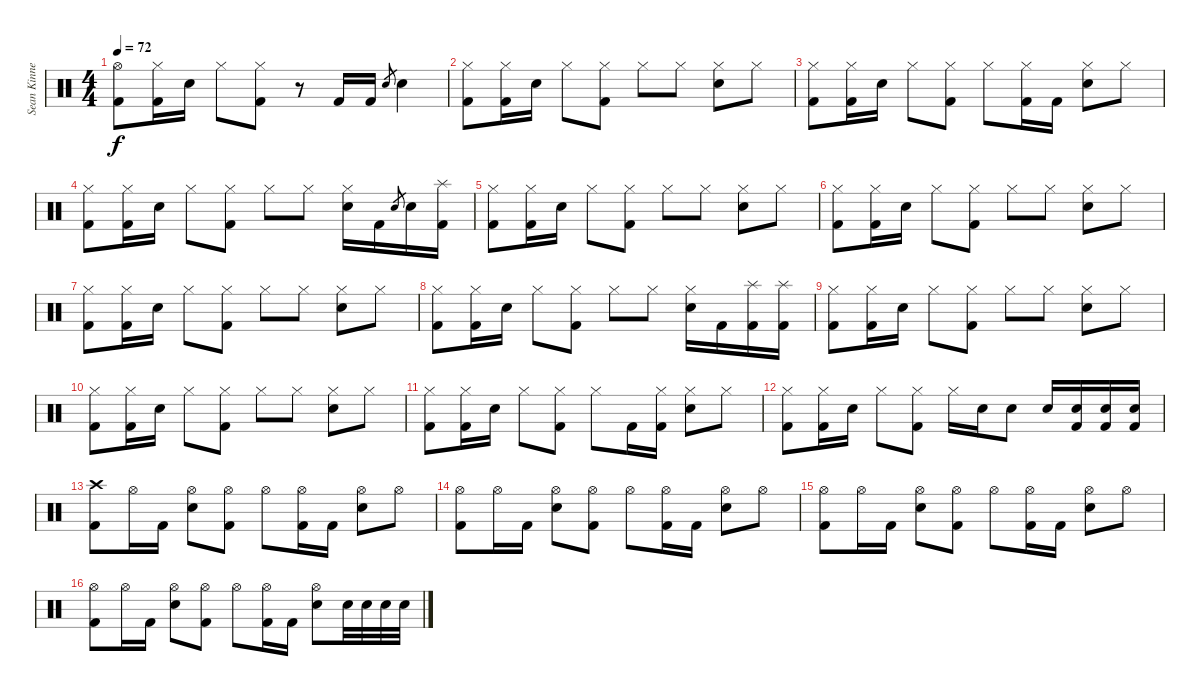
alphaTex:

\track ("Sean Kinney - Drums" "Sean Kinne") {instrument percussion}
\staff {score}
\articulation defaults
\ts (4 4)
\tempo 72
\clef neutral
\ks c
("Hi-Hat (open)" "Kick (hit) 2").8{dy f} ("Hi-Hat (closed)" "Kick (hit) 2").16 "Electric Snare (hit)".16 "Hi-Hat (closed)".8 ("Hi-Hat (closed)" "Kick (hit) 2").8 r.8 "Kick (hit) 2".16 "Kick (hit) 2".16 "Electric Snare (hit)"{sl}.8{gr} "Electric Snare (hit)".4 |
("Hi-Hat (closed)" "Kick (hit) 2").8 ("Hi-Hat (closed)" "Kick (hit) 2").16 "Electric Snare (hit)".16 "Hi-Hat (closed)".8 ("Hi-Hat (closed)" "Kick (hit) 2").8 "Hi-Hat (closed)".8 "Hi-Hat (closed)".8 ("Hi-Hat (closed)" "Electric Snare (hit)").8 "Hi-Hat (closed)".8 |
("Hi-Hat (closed)" "Kick (hit) 2").8 ("Hi-Hat (closed)" "Kick (hit) 2").16 "Electric Snare (hit)".16 "Hi-Hat (closed)".8 ("Hi-Hat (closed)" "Kick (hit) 2").8 "Hi-Hat (closed)".8 ("Hi-Hat (closed)" "Kick (hit) 2").16 "Kick (hit) 2".16 ("Hi-Hat (closed)" "Electric Snare (hit)").8 "Hi-Hat (closed)".8 |
("Hi-Hat (closed)" "Kick (hit) 2").8 ("Hi-Hat (closed)" "Kick (hit) 2").16 "Electric Snare (hit)".16 "Hi-Hat (closed)".8 ("Hi-Hat (closed)" "Kick (hit) 2").8 "Hi-Hat (closed)".8 "Hi-Hat (closed)".8 ("Hi-Hat (closed)" "Electric Snare (hit)").16 "Kick (hit) 2".16 "Electric Snare (hit)".8{gr} "Electric Snare (hit)".16 ("Splash (hit)" "Kick (hit) 2").16 |
("Hi-Hat (closed)" "Kick (hit) 2").8 ("Hi-Hat (closed)" "Kick (hit) 2").16 "Electric Snare (hit)".16 "Hi-Hat (closed)".8 ("Hi-Hat (closed)" "Kick (hit) 2").8 "Hi-Hat (closed)".8 "Hi-Hat (closed)".8 ("Hi-Hat (closed)" "Electric Snare (hit)").8 "Hi-Hat (closed)".8 |
("Hi-Hat (closed)" "Kick (hit) 2").8 ("Hi-Hat (closed)" "Kick (hit) 2").16 "Electric Snare (hit)".16 "Hi-Hat (closed)".8 ("Hi-Hat (closed)" "Kick (hit) 2").8 "Hi-Hat (closed)".8 "Hi-Hat (closed)".8 ("Hi-Hat (closed)" "Electric Snare (hit)").8 "Hi-Hat (closed)".8 |
("Hi-Hat (closed)" "Kick (hit) 2").8 ("Hi-Hat (closed)" "Kick (hit) 2").16 "Electric Snare (hit)".16 "Hi-Hat (closed)".8 ("Hi-Hat (closed)" "Kick (hit) 2").8 "Hi-Hat (closed)".8 "Hi-Hat (closed)".8 ("Hi-Hat (closed)" "Electric Snare (hit)").8 "Hi-Hat (closed)".8 |
("Hi-Hat (closed)" "Kick (hit) 2").8 ("Hi-Hat (closed)" "Kick (hit) 2").16 "Electric Snare (hit)".16 "Hi-Hat (closed)".8 ("Hi-Hat (closed)" "Kick (hit) 2").8 "Hi-Hat (closed)".8 "Hi-Hat (closed)".8 ("Hi-Hat (closed)" "Electric Snare (hit)").16 "Kick (hit) 2".16 ("Splash (hit)" "Kick (hit) 2").16 ("Splash (hit)" "Kick (hit) 2").16 |
("Hi-Hat (closed)" "Kick (hit) 2").8 ("Hi-Hat (closed)" "Kick (hit) 2").16 "Electric Snare (hit)".16 "Hi-Hat (closed)".8 ("Hi-Hat (closed)" "Kick (hit) 2").8 "Hi-Hat (closed)".8 "Hi-Hat (closed)".8 ("Hi-Hat (closed)" "Electric Snare (hit)").8 "Hi-Hat (closed)".8 |
("Hi-Hat (closed)" "Kick (hit) 2").8 ("Hi-Hat (closed)" "Kick (hit) 2").16 "Electric Snare (hit)".16 "Hi-Hat (closed)".8 ("Hi-Hat (closed)" "Kick (hit) 2").8 "Hi-Hat (closed)".8 "Hi-Hat (closed)".8 ("Hi-Hat (closed)" "Electric Snare (hit)").8 "Hi-Hat (closed)".8 |
("Hi-Hat (closed)" "Kick (hit) 2").8 ("Hi-Hat (closed)" "Kick (hit) 2").16 "Electric Snare (hit)".16 "Hi-Hat (closed)".8 ("Hi-Hat (closed)" "Kick (hit) 2").8 "Hi-Hat (closed)".8 "Kick (hit) 2".16 ("Hi-Hat (closed)" "Kick (hit) 2").16 ("Hi-Hat (closed)" "Electric Snare (hit)").8 "Hi-Hat (closed)".8 |
("Hi-Hat (closed)" "Kick (hit) 2").8 ("Hi-Hat (closed)" "Kick (hit) 2").16 "Electric Snare (hit)".16 "Hi-Hat (closed)".8 ("Hi-Hat (closed)" "Kick (hit) 2").8 "Hi-Hat (closed)".16 "Electric Snare (hit)".16 "Electric Snare (hit)".8 "Electric Snare (hit)".16 ("Electric Snare (hit)" "Kick (hit) 2").16 ("Electric Snare (hit)" "Kick (hit) 2").16 ("Electric Snare (hit)" "Kick (hit) 2").16 |
("Crash high (hit)" "Kick (hit) 2").8 "Hi-Hat (open)".16 "Kick (hit) 2".16 ("Hi-Hat (open)" "Electric Snare (hit)").8 ("Hi-Hat (open)" "Kick (hit) 2").8 "Hi-Hat (open)".8 ("Hi-Hat (open)" "Kick (hit) 2").16 "Kick (hit) 2".16 ("Hi-Hat (open)" "Electric Snare (hit)").8 "Hi-Hat (open)".8 |
("Hi-Hat (open)" "Kick (hit) 2").8 "Hi-Hat (open)".16 "Kick (hit) 2".16 ("Hi-Hat (open)" "Electric Snare (hit)").8 ("Hi-Hat (open)" "Kick (hit) 2").8 "Hi-Hat (open)".8 ("Hi-Hat (open)" "Kick (hit) 2").16 "Kick (hit) 2".16 ("Hi-Hat (open)" "Electric Snare (hit)").8 "Hi-Hat (open)".8 |
("Hi-Hat (open)" "Kick (hit) 2").8 "Hi-Hat (open)".16 "Kick (hit) 2".16 ("Hi-Hat (open)" "Electric Snare (hit)").8 ("Hi-Hat (open)" "Kick (hit) 2").8 "Hi-Hat (open)".8 ("Hi-Hat (open)" "Kick (hit) 2").16 "Kick (hit) 2".16 ("Hi-Hat (open)" "Electric Snare (hit)").8 "Hi-Hat (open)".8 |
("Hi-Hat (open)" "Kick (hit) 2").8 "Hi-Hat (open)".16 "Kick (hit) 2".16 ("Hi-Hat (open)" "Electric Snare (hit)").8 ("Hi-Hat (open)" "Kick (hit) 2").8 "Hi-Hat (open)".8 ("Hi-Hat (open)" "Kick (hit) 2").16 "Kick (hit) 2".16 ("Hi-Hat (open)" "Electric Snare (hit)").8 "Electric Snare (hit)".32 "Electric Snare (hit)".32 "Electric Snare (hit)".32 "Electric Snare (hit)".32
